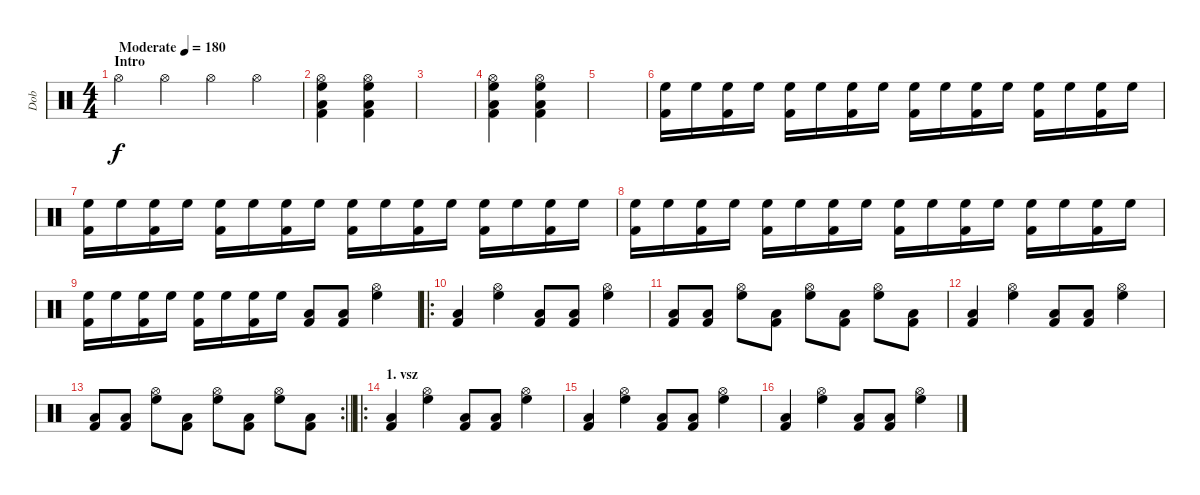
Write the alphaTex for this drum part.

\track ("Dob" "Dob") {instrument percussion}
\staff {score}
\articulation defaults
\ts (4 4)
\section ("" "Intro")
\tempo (180 "Moderate")
\clef neutral
\ks c "Hi-Hat (open)".4{dy f} "Hi-Hat (open)".4 "Hi-Hat (open)".4 "Hi-Hat (open)".4
|
("Hi-Hat (open)" "High Floor Tom (hit)" "Low Tom (hit)" "Kick (hit) 2").4 ("Hi-Hat (open)" "High Floor Tom (hit)" "Low Tom (hit)" "Kick (hit) 2").4 |
|
("Hi-Hat (open)" "High Floor Tom (hit)" "Low Tom (hit)" "Kick (hit) 2").4 ("Hi-Hat (open)" "High Floor Tom (hit)" "Low Tom (hit)" "Kick (hit) 2").4 |
|
("Kick (hit) 2" "High Floor Tom (hit)").16 "High Floor Tom (hit)".16 ("Kick (hit) 2" "High Floor Tom (hit)").16 "High Floor Tom (hit)".16 ("Kick (hit) 2" "High Floor Tom (hit)").16 "High Floor Tom (hit)".16 ("Kick (hit) 2" "High Floor Tom (hit)").16 "High Floor Tom (hit)".16 ("Kick (hit) 2" "High Floor Tom (hit)").16 "High Floor Tom (hit)".16 ("Kick (hit) 2" "High Floor Tom (hit)").16 "High Floor Tom (hit)".16 ("Kick (hit) 2" "High Floor Tom (hit)").16 "High Floor Tom (hit)".16 ("Kick (hit) 2" "High Floor Tom (hit)").16 "High Floor Tom (hit)".16 |
("Kick (hit) 2" "High Floor Tom (hit)").16 "High Floor Tom (hit)".16 ("Kick (hit) 2" "High Floor Tom (hit)").16 "High Floor Tom (hit)".16 ("Kick (hit) 2" "High Floor Tom (hit)").16 "High Floor Tom (hit)".16 ("Kick (hit) 2" "High Floor Tom (hit)").16 "High Floor Tom (hit)".16 ("Kick (hit) 2" "High Floor Tom (hit)").16 "High Floor Tom (hit)".16 ("Kick (hit) 2" "High Floor Tom (hit)").16 "High Floor Tom (hit)".16 ("Kick (hit) 2" "High Floor Tom (hit)").16 "High Floor Tom (hit)".16 ("Kick (hit) 2" "High Floor Tom (hit)").16 "High Floor Tom (hit)".16 |
("Kick (hit) 2" "High Floor Tom (hit)").16 "High Floor Tom (hit)".16 ("Kick (hit) 2" "High Floor Tom (hit)").16 "High Floor Tom (hit)".16 ("Kick (hit) 2" "High Floor Tom (hit)").16 "High Floor Tom (hit)".16 ("Kick (hit) 2" "High Floor Tom (hit)").16 "High Floor Tom (hit)".16 ("Kick (hit) 2" "High Floor Tom (hit)").16 "High Floor Tom (hit)".16 ("Kick (hit) 2" "High Floor Tom (hit)").16 "High Floor Tom (hit)".16 ("Kick (hit) 2" "High Floor Tom (hit)").16 "High Floor Tom (hit)".16 ("Kick (hit) 2" "High Floor Tom (hit)").16 "High Floor Tom (hit)".16 |
("Kick (hit) 2" "High Floor Tom (hit)").16 "High Floor Tom (hit)".16 ("Kick (hit) 2" "High Floor Tom (hit)").16 "High Floor Tom (hit)".16 ("Kick (hit) 2" "High Floor Tom (hit)").16 "High Floor Tom (hit)".16 ("Kick (hit) 2" "High Floor Tom (hit)").16 "High Floor Tom (hit)".16 ("Low Tom (hit)" "Kick (hit) 2").8 ("Low Tom (hit)" "Kick (hit) 2").8 ("Hi-Hat (open)" "High Floor Tom (hit)").4 |
\ro
("Low Tom (hit)" "Kick (hit) 2").4 ("Hi-Hat (open)" "High Floor Tom (hit)").4 ("Low Tom (hit)" "Kick (hit) 2").8 ("Low Tom (hit)" "Kick (hit) 2").8 ("Hi-Hat (open)" "High Floor Tom (hit)").4 |
("Low Tom (hit)" "Kick (hit) 2").8 ("Low Tom (hit)" "Kick (hit) 2").8 ("Hi-Hat (open)" "High Floor Tom (hit)").8 ("Low Tom (hit)" "Kick (hit) 2").8 ("Hi-Hat (open)" "High Floor Tom (hit)").8 ("Low Tom (hit)" "Kick (hit) 2").8 ("Hi-Hat (open)" "High Floor Tom (hit)").8 ("Low Tom (hit)" "Kick (hit) 2").8 |
("Low Tom (hit)" "Kick (hit) 2").4 ("Hi-Hat (open)" "High Floor Tom (hit)").4 ("Low Tom (hit)" "Kick (hit) 2").8 ("Low Tom (hit)" "Kick (hit) 2").8 ("Hi-Hat (open)" "High Floor Tom (hit)").4 |
\rc 2
\barLineRight lightlight
("Low Tom (hit)" "Kick (hit) 2").8 ("Low Tom (hit)" "Kick (hit) 2").8 ("Hi-Hat (open)" "High Floor Tom (hit)").8 ("Low Tom (hit)" "Kick (hit) 2").8 ("Hi-Hat (open)" "High Floor Tom (hit)").8 ("Low Tom (hit)" "Kick (hit) 2").8 ("Hi-Hat (open)" "High Floor Tom (hit)").8 ("Low Tom (hit)" "Kick (hit) 2").8 |
\ro
\section ("" "1. vsz")
("Low Tom (hit)" "Kick (hit) 2").4 ("Hi-Hat (open)" "High Floor Tom (hit)").4 ("Low Tom (hit)" "Kick (hit) 2").8 ("Low Tom (hit)" "Kick (hit) 2").8 ("Hi-Hat (open)" "High Floor Tom (hit)").4 |
("Low Tom (hit)" "Kick (hit) 2").4 ("Hi-Hat (open)" "High Floor Tom (hit)").4 ("Low Tom (hit)" "Kick (hit) 2").8 ("Low Tom (hit)" "Kick (hit) 2").8 ("Hi-Hat (open)" "High Floor Tom (hit)").4 |
("Low Tom (hit)" "Kick (hit) 2").4 ("Hi-Hat (open)" "High Floor Tom (hit)").4 ("Low Tom (hit)" "Kick (hit) 2").8 ("Low Tom (hit)" "Kick (hit) 2").8 ("Hi-Hat (open)" "High Floor Tom (hit)").4
